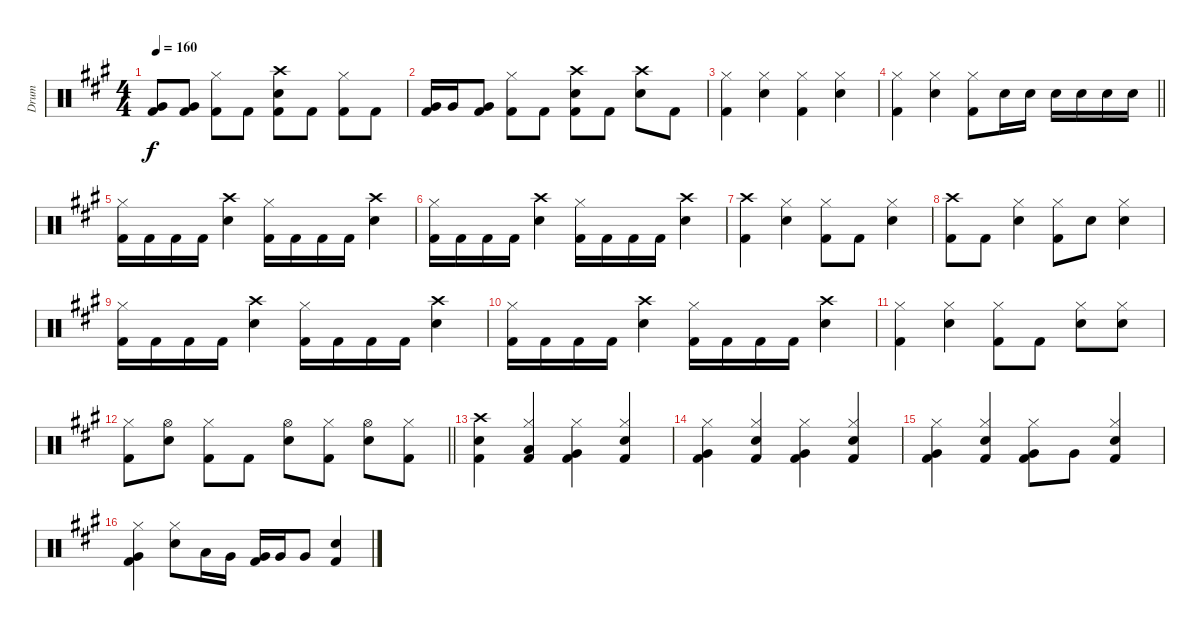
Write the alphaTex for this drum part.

\track ("Drum" "Drum") {instrument percussion}
\staff {score}
\articulation defaults
\ts (4 4)
\tempo 160
\clef neutral
\ks a
("Kick (hit) 2" "Very Low Tom (hit)").8{dy f} ("Kick (hit) 2" "Very Low Tom (hit)").8 ("Hi-Hat (closed)" "Kick (hit) 2").8 "Kick (hit) 2".8 ("Snare (hit) 2" "Kick (hit) 2" "Crash high (hit)").8 "Kick (hit) 2".8 ("Hi-Hat (closed)" "Kick (hit) 2").8 "Kick (hit) 2".8 |
("Kick (hit) 2" "Very Low Tom (hit)").16 "Very Low Tom (hit)".16 ("Kick (hit) 2" "Very Low Tom (hit)").8 ("Hi-Hat (closed)" "Kick (hit) 2").8 "Kick (hit) 2".8 ("Snare (hit) 2" "Kick (hit) 2" "Crash high (hit)").8 "Kick (hit) 2".8 ("Snare (hit) 2" "Crash high (hit)").8 "Kick (hit) 2".8 |
("Hi-Hat (closed)" "Kick (hit) 2").4 ("Hi-Hat (closed)" "Snare (hit) 2").4 ("Hi-Hat (closed)" "Kick (hit) 2").4 ("Hi-Hat (closed)" "Snare (hit) 2").4 |
\barLineRight lightlight
("Hi-Hat (closed)" "Kick (hit) 2").4 ("Hi-Hat (closed)" "Snare (hit) 2").4 ("Hi-Hat (closed)" "Kick (hit) 2").8 "Snare (hit) 2".16 "Snare (hit) 2".16 "Snare (hit) 2".16 "Snare (hit) 2".16 "Snare (hit) 2".16 "Snare (hit) 2".16 |
("Hi-Hat (closed)" "Kick (hit) 2").16 "Kick (hit) 2".16 "Kick (hit) 2".16 "Kick (hit) 2".16 ("Snare (hit) 2" "Crash high (hit)").4 ("Hi-Hat (closed)" "Kick (hit) 2").16 "Kick (hit) 2".16 "Kick (hit) 2".16 "Kick (hit) 2".16 ("Snare (hit) 2" "Crash high (hit)").4 |
("Hi-Hat (closed)" "Kick (hit) 2").16 "Kick (hit) 2".16 "Kick (hit) 2".16 "Kick (hit) 2".16 ("Snare (hit) 2" "Crash high (hit)").4 ("Hi-Hat (closed)" "Kick (hit) 2").16 "Kick (hit) 2".16 "Kick (hit) 2".16 "Kick (hit) 2".16 ("Snare (hit) 2" "Crash high (hit)").4 |
("Kick (hit) 2" "Crash high (hit)").4 ("Hi-Hat (closed)" "Snare (hit) 2").4 ("Hi-Hat (closed)" "Kick (hit) 2").8 "Kick (hit) 2".8 ("Hi-Hat (closed)" "Snare (hit) 2").4 |
("Crash high (hit)" "Kick (hit) 2").8 "Kick (hit) 2".8 ("Hi-Hat (closed)" "Snare (hit) 2").4 ("Hi-Hat (closed)" "Kick (hit) 2").8 "Snare (hit) 2".8 ("Hi-Hat (closed)" "Snare (hit) 2").4 |
("Hi-Hat (closed)" "Kick (hit) 2").16 "Kick (hit) 2".16 "Kick (hit) 2".16 "Kick (hit) 2".16 ("Snare (hit) 2" "Crash high (hit)").4 ("Hi-Hat (closed)" "Kick (hit) 2").16 "Kick (hit) 2".16 "Kick (hit) 2".16 "Kick (hit) 2".16 ("Snare (hit) 2" "Crash high (hit)").4 |
("Hi-Hat (closed)" "Kick (hit) 2").16 "Kick (hit) 2".16 "Kick (hit) 2".16 "Kick (hit) 2".16 ("Snare (hit) 2" "Crash high (hit)").4 ("Hi-Hat (closed)" "Kick (hit) 2").16 "Kick (hit) 2".16 "Kick (hit) 2".16 "Kick (hit) 2".16 ("Snare (hit) 2" "Crash high (hit)").4 |
("Hi-Hat (closed)" "Kick (hit) 2").4 ("Hi-Hat (closed)" "Snare (hit) 2").4 ("Hi-Hat (closed)" "Kick (hit) 2").8 "Kick (hit) 2".8 ("Hi-Hat (closed)" "Snare (hit) 2").8 ("Hi-Hat (closed)" "Snare (hit) 2").8 |
\barLineRight lightlight
("Hi-Hat (closed)" "Kick (hit) 2").8 ("Hi-Hat (open)" "Snare (hit) 2").8 ("Hi-Hat (closed)" "Kick (hit) 2").8 "Kick (hit) 2".8 ("Hi-Hat (open)" "Snare (hit) 2").8 ("Hi-Hat (closed)" "Kick (hit) 2").8 ("Hi-Hat (open)" "Snare (hit) 2").8 ("Hi-Hat (closed)" "Kick (hit) 2").8 |
("Snare (hit) 2" "Kick (hit) 2" "Crash high (hit)").4 ("Hi-Hat (closed)" "Kick (hit) 2" "Low Tom (hit)").4 ("Hi-Hat (closed)" "Kick (hit) 2" "Very Low Tom (hit)").4 ("Hi-Hat (closed)" "Snare (hit) 2" "Kick (hit) 2").4 |
("Hi-Hat (closed)" "Kick (hit) 2" "Very Low Tom (hit)").4 ("Hi-Hat (closed)" "Snare (hit) 2" "Kick (hit) 2").4 ("Hi-Hat (closed)" "Kick (hit) 2" "Very Low Tom (hit)").4 ("Hi-Hat (closed)" "Snare (hit) 2" "Kick (hit) 2").4 |
("Hi-Hat (closed)" "Kick (hit) 2" "Very Low Tom (hit)").4 ("Hi-Hat (closed)" "Snare (hit) 2" "Kick (hit) 2").4 ("Hi-Hat (closed)" "Kick (hit) 2" "Very Low Tom (hit)").8 "Very Low Tom (hit)".8 ("Hi-Hat (closed)" "Snare (hit) 2" "Kick (hit) 2").4 |
("Hi-Hat (closed)" "Kick (hit) 2" "Very Low Tom (hit)").4 ("Hi-Hat (closed)" "Snare (hit) 2").8 "Low Tom (hit)".16 "Very Low Tom (hit)".16 ("Kick (hit) 2" "Very Low Tom (hit)").16 "Very Low Tom (hit)".16 "Very Low Tom (hit)".8 ("Snare (hit) 2" "Kick (hit) 2").4
